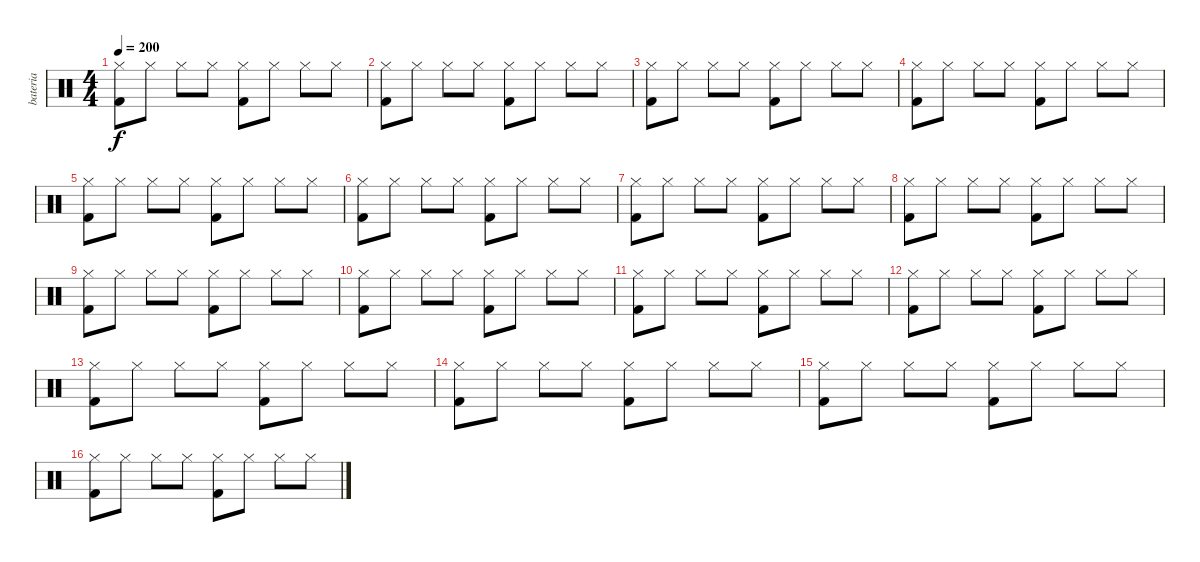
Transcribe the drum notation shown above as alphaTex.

\track ("bateria" "bateria") {instrument percussion}
\staff {score}
\articulation defaults
\ts (4 4)
\tempo 200
\clef neutral
\ks c
("Kick (hit) 2" "Hi-Hat (closed)").8{dy f} "Hi-Hat (closed)".8 "Hi-Hat (closed)".8 "Hi-Hat (closed)".8 ("Kick (hit) 2" "Hi-Hat (closed)").8 "Hi-Hat (closed)".8 "Hi-Hat (closed)".8 "Hi-Hat (closed)".8 |
("Kick (hit) 2" "Hi-Hat (closed)").8 "Hi-Hat (closed)".8 "Hi-Hat (closed)".8 "Hi-Hat (closed)".8 ("Kick (hit) 2" "Hi-Hat (closed)").8 "Hi-Hat (closed)".8 "Hi-Hat (closed)".8 "Hi-Hat (closed)".8 |
("Kick (hit) 2" "Hi-Hat (closed)").8 "Hi-Hat (closed)".8 "Hi-Hat (closed)".8 "Hi-Hat (closed)".8 ("Kick (hit) 2" "Hi-Hat (closed)").8 "Hi-Hat (closed)".8 "Hi-Hat (closed)".8 "Hi-Hat (closed)".8 |
("Kick (hit) 2" "Hi-Hat (closed)").8 "Hi-Hat (closed)".8 "Hi-Hat (closed)".8 "Hi-Hat (closed)".8 ("Kick (hit) 2" "Hi-Hat (closed)").8 "Hi-Hat (closed)".8 "Hi-Hat (closed)".8 "Hi-Hat (closed)".8 |
("Kick (hit) 2" "Hi-Hat (closed)").8 "Hi-Hat (closed)".8 "Hi-Hat (closed)".8 "Hi-Hat (closed)".8 ("Kick (hit) 2" "Hi-Hat (closed)").8 "Hi-Hat (closed)".8 "Hi-Hat (closed)".8 "Hi-Hat (closed)".8 |
("Kick (hit) 2" "Hi-Hat (closed)").8 "Hi-Hat (closed)".8 "Hi-Hat (closed)".8 "Hi-Hat (closed)".8 ("Kick (hit) 2" "Hi-Hat (closed)").8 "Hi-Hat (closed)".8 "Hi-Hat (closed)".8 "Hi-Hat (closed)".8 |
("Kick (hit) 2" "Hi-Hat (closed)").8 "Hi-Hat (closed)".8 "Hi-Hat (closed)".8 "Hi-Hat (closed)".8 ("Kick (hit) 2" "Hi-Hat (closed)").8 "Hi-Hat (closed)".8 "Hi-Hat (closed)".8 "Hi-Hat (closed)".8 |
("Kick (hit) 2" "Hi-Hat (closed)").8 "Hi-Hat (closed)".8 "Hi-Hat (closed)".8 "Hi-Hat (closed)".8 ("Kick (hit) 2" "Hi-Hat (closed)").8 "Hi-Hat (closed)".8 "Hi-Hat (closed)".8 "Hi-Hat (closed)".8 |
("Kick (hit) 2" "Hi-Hat (closed)").8 "Hi-Hat (closed)".8 "Hi-Hat (closed)".8 "Hi-Hat (closed)".8 ("Kick (hit) 2" "Hi-Hat (closed)").8 "Hi-Hat (closed)".8 "Hi-Hat (closed)".8 "Hi-Hat (closed)".8 |
("Kick (hit) 2" "Hi-Hat (closed)").8 "Hi-Hat (closed)".8 "Hi-Hat (closed)".8 "Hi-Hat (closed)".8 ("Kick (hit) 2" "Hi-Hat (closed)").8 "Hi-Hat (closed)".8 "Hi-Hat (closed)".8 "Hi-Hat (closed)".8 |
("Kick (hit) 2" "Hi-Hat (closed)").8 "Hi-Hat (closed)".8 "Hi-Hat (closed)".8 "Hi-Hat (closed)".8 ("Kick (hit) 2" "Hi-Hat (closed)").8 "Hi-Hat (closed)".8 "Hi-Hat (closed)".8 "Hi-Hat (closed)".8 |
("Kick (hit) 2" "Hi-Hat (closed)").8 "Hi-Hat (closed)".8 "Hi-Hat (closed)".8 "Hi-Hat (closed)".8 ("Kick (hit) 2" "Hi-Hat (closed)").8 "Hi-Hat (closed)".8 "Hi-Hat (closed)".8 "Hi-Hat (closed)".8 |
("Kick (hit) 2" "Hi-Hat (closed)").8 "Hi-Hat (closed)".8 "Hi-Hat (closed)".8 "Hi-Hat (closed)".8 ("Kick (hit) 2" "Hi-Hat (closed)").8 "Hi-Hat (closed)".8 "Hi-Hat (closed)".8 "Hi-Hat (closed)".8 |
("Kick (hit) 2" "Hi-Hat (closed)").8 "Hi-Hat (closed)".8 "Hi-Hat (closed)".8 "Hi-Hat (closed)".8 ("Kick (hit) 2" "Hi-Hat (closed)").8 "Hi-Hat (closed)".8 "Hi-Hat (closed)".8 "Hi-Hat (closed)".8 |
("Kick (hit) 2" "Hi-Hat (closed)").8 "Hi-Hat (closed)".8 "Hi-Hat (closed)".8 "Hi-Hat (closed)".8 ("Kick (hit) 2" "Hi-Hat (closed)").8 "Hi-Hat (closed)".8 "Hi-Hat (closed)".8 "Hi-Hat (closed)".8 |
("Kick (hit) 2" "Hi-Hat (closed)").8 "Hi-Hat (closed)".8 "Hi-Hat (closed)".8 "Hi-Hat (closed)".8 ("Kick (hit) 2" "Hi-Hat (closed)").8 "Hi-Hat (closed)".8 "Hi-Hat (closed)".8 "Hi-Hat (closed)".8
